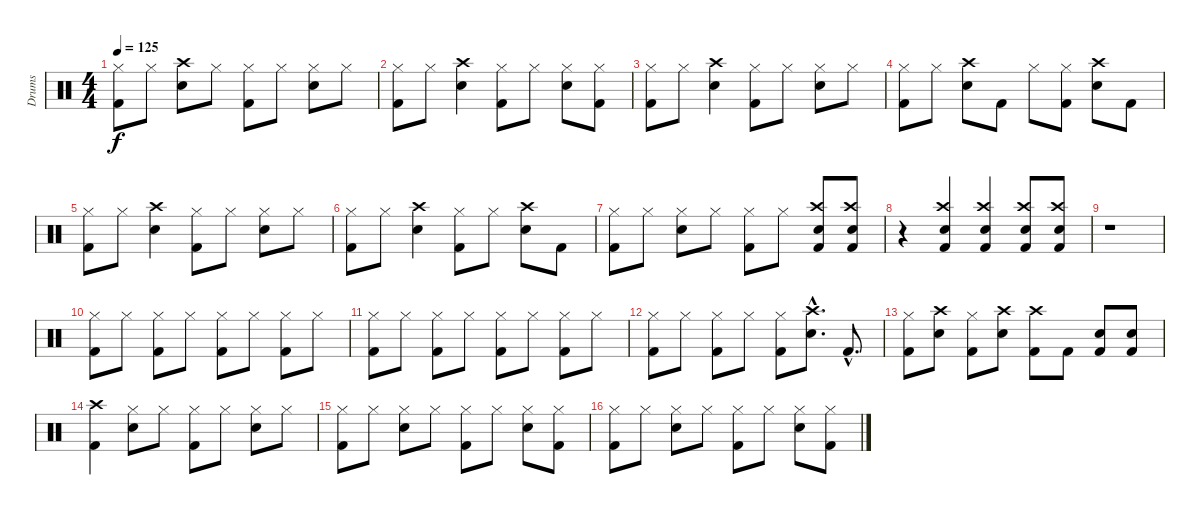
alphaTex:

\track ("Drums" "Drums") {instrument percussion}
\staff {score}
\articulation defaults
\ts (4 4)
\tempo 125
\clef neutral
\ks c
("Hi-Hat (closed)" "Kick (hit) 2").8{dy f} "Hi-Hat (closed)".8 ("Crash high (hit)" "Electric Snare (hit)").8 "Hi-Hat (closed)".8 ("Hi-Hat (closed)" "Kick (hit) 2").8 "Hi-Hat (closed)".8 ("Hi-Hat (closed)" "Electric Snare (hit)").8 "Hi-Hat (closed)".8 |
("Hi-Hat (closed)" "Kick (hit) 2").8 "Hi-Hat (closed)".8 ("Crash high (hit)" "Electric Snare (hit)").4 ("Hi-Hat (closed)" "Kick (hit) 2").8 "Hi-Hat (closed)".8 ("Hi-Hat (closed)" "Electric Snare (hit)").8 ("Hi-Hat (closed)" "Kick (hit) 2").8 |
("Hi-Hat (closed)" "Kick (hit) 2").8 "Hi-Hat (closed)".8 ("Crash high (hit)" "Electric Snare (hit)").4 ("Hi-Hat (closed)" "Kick (hit) 2").8 "Hi-Hat (closed)".8 ("Hi-Hat (closed)" "Electric Snare (hit)").8 "Hi-Hat (closed)".8 |
("Hi-Hat (closed)" "Kick (hit) 2").8 "Hi-Hat (closed)".8 ("Crash high (hit)" "Electric Snare (hit)").8 "Kick (hit) 2".8 "Hi-Hat (closed)".8 ("Hi-Hat (closed)" "Kick (hit) 2").8 ("Crash high (hit)" "Electric Snare (hit)").8 "Kick (hit) 2".8 |
("Hi-Hat (closed)" "Kick (hit) 2").8 "Hi-Hat (closed)".8 ("Crash high (hit)" "Electric Snare (hit)").4 ("Hi-Hat (closed)" "Kick (hit) 2").8 "Hi-Hat (closed)".8 ("Hi-Hat (closed)" "Electric Snare (hit)").8 "Hi-Hat (closed)".8 |
("Hi-Hat (closed)" "Kick (hit) 2").8 "Hi-Hat (closed)".8 ("Crash high (hit)" "Electric Snare (hit)").4 ("Hi-Hat (closed)" "Kick (hit) 2").8 "Hi-Hat (closed)".8 ("Crash high (hit)" "Electric Snare (hit)").8 "Kick (hit) 2".8 |
("Hi-Hat (closed)" "Kick (hit) 2").8 "Hi-Hat (closed)".8 ("Hi-Hat (closed)" "Electric Snare (hit)").8 "Hi-Hat (closed)".8 ("Hi-Hat (closed)" "Kick (hit) 2").8 "Hi-Hat (closed)".8 ("Crash high (hit)" "Electric Snare (hit)" "Kick (hit) 2").8 ("Crash high (hit)" "Electric Snare (hit)" "Kick (hit) 2").8 |
r.4 ("Crash high (hit)" "Electric Snare (hit)" "Kick (hit) 2").4 ("Crash high (hit)" "Electric Snare (hit)" "Kick (hit) 2").4 ("Crash high (hit)" "Electric Snare (hit)" "Kick (hit) 2").8 ("Crash high (hit)" "Electric Snare (hit)" "Kick (hit) 2").8 |
r.1 |
("Hi-Hat (closed)" "Kick (hit) 2").8 "Hi-Hat (closed)".8 ("Hi-Hat (closed)" "Kick (hit) 2").8 "Hi-Hat (closed)".8 ("Hi-Hat (closed)" "Kick (hit) 2").8 "Hi-Hat (closed)".8 ("Hi-Hat (closed)" "Kick (hit) 2").8 "Hi-Hat (closed)".8 |
("Hi-Hat (closed)" "Kick (hit) 2").8 "Hi-Hat (closed)".8 ("Hi-Hat (closed)" "Kick (hit) 2").8 "Hi-Hat (closed)".8 ("Hi-Hat (closed)" "Kick (hit) 2").8 "Hi-Hat (closed)".8 ("Hi-Hat (closed)" "Kick (hit) 2").8 "Hi-Hat (closed)".8 |
("Hi-Hat (closed)" "Kick (hit) 2").8 "Hi-Hat (closed)".8 ("Hi-Hat (closed)" "Kick (hit) 2").8 "Hi-Hat (closed)".8 ("Hi-Hat (closed)" "Kick (hit) 2").8 ("Crash high (hit)"{hac} "Electric Snare (hit)"{hac}).8{d} "Kick (hit) 2"{hac}.8{d} |
("Hi-Hat (closed)" "Kick (hit) 2").8 ("Crash high (hit)" "Electric Snare (hit)").8 ("Hi-Hat (closed)" "Kick (hit) 2").8 ("Crash high (hit)" "Electric Snare (hit)").8 ("Crash high (hit)" "Kick (hit) 2").8 "Kick (hit) 2".8 ("Electric Snare (hit)" "Kick (hit) 2").8 ("Electric Snare (hit)" "Kick (hit) 2").8 |
("Crash high (hit)" "Kick (hit) 2").4 ("Hi-Hat (closed)" "Electric Snare (hit)").8 "Hi-Hat (closed)".8 ("Hi-Hat (closed)" "Kick (hit) 2").8 "Hi-Hat (closed)".8 ("Hi-Hat (closed)" "Electric Snare (hit)").8 "Hi-Hat (closed)".8 |
("Hi-Hat (closed)" "Kick (hit) 2").8 "Hi-Hat (closed)".8 ("Hi-Hat (closed)" "Electric Snare (hit)").8 "Hi-Hat (closed)".8 ("Hi-Hat (closed)" "Kick (hit) 2").8 "Hi-Hat (closed)".8 ("Hi-Hat (closed)" "Electric Snare (hit)").8 ("Hi-Hat (closed)" "Kick (hit) 2").8 |
("Hi-Hat (closed)" "Kick (hit) 2").8 "Hi-Hat (closed)".8 ("Hi-Hat (closed)" "Electric Snare (hit)").8 "Hi-Hat (closed)".8 ("Hi-Hat (closed)" "Kick (hit) 2").8 "Hi-Hat (closed)".8 ("Hi-Hat (closed)" "Electric Snare (hit)").8 ("Hi-Hat (closed)" "Kick (hit) 2").8
